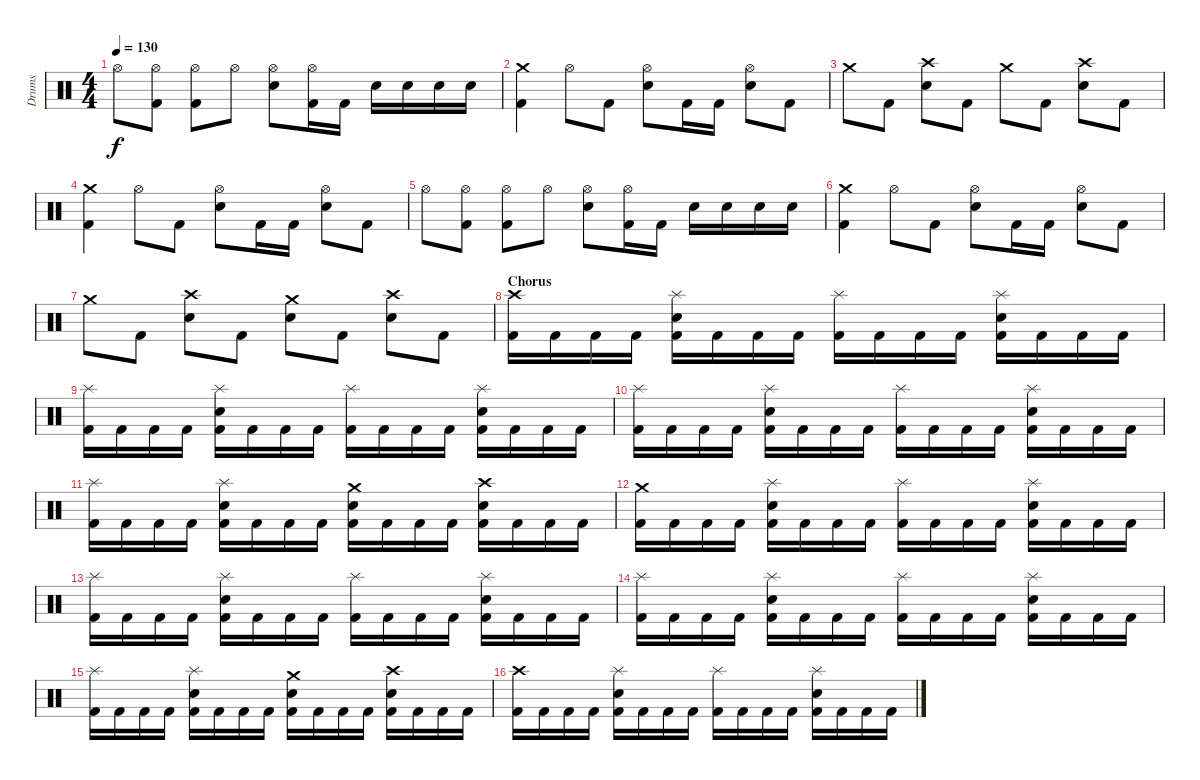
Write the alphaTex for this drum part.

\track ("Drums" "Drums") {instrument percussion}
\staff {score}
\articulation defaults
\ts (4 4)
\tempo 130
\clef neutral
\ks c "Hi-Hat (open)".8{dy f}
("Kick (hit) 2" "Hi-Hat (open)").8 ("Kick (hit) 2" "Hi-Hat (open)").8 "Hi-Hat (open)".8 ("Electric Snare (hit)" "Hi-Hat (open)").8 ("Kick (hit) 2" "Hi-Hat (open)").16 "Kick (hit) 2".16 "Electric Snare (hit)".16 "Electric Snare (hit)".16 "Electric Snare (hit)".16 "Electric Snare (hit)".16 |
("Kick (hit) 2" "Crash medium (hit)").4 "Hi-Hat (open)".8 "Kick (hit) 2".8 ("Electric Snare (hit)" "Hi-Hat (open)").8 "Kick (hit) 2".16 "Kick (hit) 2".16 ("Electric Snare (hit)" "Hi-Hat (open)").8 "Kick (hit) 2".8 |
"Crash medium (hit)".8 "Kick (hit) 2".8 ("Electric Snare (hit)" "Crash high (hit)").8 "Kick (hit) 2".8 "Crash medium (hit)".8 "Kick (hit) 2".8 ("Electric Snare (hit)" "Crash high (hit)").8 "Kick (hit) 2".8 |
("Kick (hit) 2" "Crash medium (hit)").4 "Hi-Hat (open)".8 "Kick (hit) 2".8 ("Electric Snare (hit)" "Hi-Hat (open)").8 "Kick (hit) 2".16 "Kick (hit) 2".16 ("Electric Snare (hit)" "Hi-Hat (open)").8 "Kick (hit) 2".8 |
"Hi-Hat (open)".8 ("Kick (hit) 2" "Hi-Hat (open)").8 ("Kick (hit) 2" "Hi-Hat (open)").8 "Hi-Hat (open)".8 ("Electric Snare (hit)" "Hi-Hat (open)").8 ("Kick (hit) 2" "Hi-Hat (open)").16 "Kick (hit) 2".16 "Electric Snare (hit)".16 "Electric Snare (hit)".16 "Electric Snare (hit)".16 "Electric Snare (hit)".16 |
("Kick (hit) 2" "Crash medium (hit)").4 "Hi-Hat (open)".8 "Kick (hit) 2".8 ("Electric Snare (hit)" "Hi-Hat (open)").8 "Kick (hit) 2".16 "Kick (hit) 2".16 ("Electric Snare (hit)" "Hi-Hat (open)").8 "Kick (hit) 2".8 |
"Crash medium (hit)".8 "Kick (hit) 2".8 ("Electric Snare (hit)" "Crash high (hit)").8 "Kick (hit) 2".8 ("Electric Snare (hit)" "Crash medium (hit)").8 "Kick (hit) 2".8 ("Electric Snare (hit)" "Crash high (hit)").8 "Kick (hit) 2".8 |
\section ("" "Chorus")
("Kick (hit) 2" "Crash high (hit)").16 "Kick (hit) 2".16 "Kick (hit) 2".16 "Kick (hit) 2".16 ("Kick (hit) 2" "Electric Snare (hit)" "Splash (hit)").16 "Kick (hit) 2".16 "Kick (hit) 2".16 "Kick (hit) 2".16 ("Kick (hit) 2" "Splash (hit)").16 "Kick (hit) 2".16 "Kick (hit) 2".16 "Kick (hit) 2".16 ("Kick (hit) 2" "Electric Snare (hit)" "Splash (hit)").16 "Kick (hit) 2".16 "Kick (hit) 2".16 "Kick (hit) 2".16 |
("Kick (hit) 2" "Splash (hit)").16 "Kick (hit) 2".16 "Kick (hit) 2".16 "Kick (hit) 2".16 ("Kick (hit) 2" "Electric Snare (hit)" "Splash (hit)").16 "Kick (hit) 2".16 "Kick (hit) 2".16 "Kick (hit) 2".16 ("Kick (hit) 2" "Splash (hit)").16 "Kick (hit) 2".16 "Kick (hit) 2".16 "Kick (hit) 2".16 ("Kick (hit) 2" "Electric Snare (hit)" "Splash (hit)").16 "Kick (hit) 2".16 "Kick (hit) 2".16 "Kick (hit) 2".16 |
("Kick (hit) 2" "Splash (hit)").16 "Kick (hit) 2".16 "Kick (hit) 2".16 "Kick (hit) 2".16 ("Kick (hit) 2" "Electric Snare (hit)" "Splash (hit)").16 "Kick (hit) 2".16 "Kick (hit) 2".16 "Kick (hit) 2".16 ("Kick (hit) 2" "Splash (hit)").16 "Kick (hit) 2".16 "Kick (hit) 2".16 "Kick (hit) 2".16 ("Kick (hit) 2" "Electric Snare (hit)" "Splash (hit)").16 "Kick (hit) 2".16 "Kick (hit) 2".16 "Kick (hit) 2".16 |
("Kick (hit) 2" "Splash (hit)").16 "Kick (hit) 2".16 "Kick (hit) 2".16 "Kick (hit) 2".16 ("Kick (hit) 2" "Electric Snare (hit)" "Splash (hit)").16 "Kick (hit) 2".16 "Kick (hit) 2".16 "Kick (hit) 2".16 ("Kick (hit) 2" "Electric Snare (hit)" "Crash medium (hit)").16 "Kick (hit) 2".16 "Kick (hit) 2".16 "Kick (hit) 2".16 ("Kick (hit) 2" "Electric Snare (hit)" "Crash high (hit)").16 "Kick (hit) 2".16 "Kick (hit) 2".16 "Kick (hit) 2".16 |
("Kick (hit) 2" "Crash medium (hit)").16 "Kick (hit) 2".16 "Kick (hit) 2".16 "Kick (hit) 2".16 ("Kick (hit) 2" "Electric Snare (hit)" "Splash (hit)").16 "Kick (hit) 2".16 "Kick (hit) 2".16 "Kick (hit) 2".16 ("Kick (hit) 2" "Splash (hit)").16 "Kick (hit) 2".16 "Kick (hit) 2".16 "Kick (hit) 2".16 ("Kick (hit) 2" "Electric Snare (hit)" "Splash (hit)").16 "Kick (hit) 2".16 "Kick (hit) 2".16 "Kick (hit) 2".16 |
("Kick (hit) 2" "Splash (hit)").16 "Kick (hit) 2".16 "Kick (hit) 2".16 "Kick (hit) 2".16 ("Kick (hit) 2" "Electric Snare (hit)" "Splash (hit)").16 "Kick (hit) 2".16 "Kick (hit) 2".16 "Kick (hit) 2".16 ("Kick (hit) 2" "Splash (hit)").16 "Kick (hit) 2".16 "Kick (hit) 2".16 "Kick (hit) 2".16 ("Kick (hit) 2" "Electric Snare (hit)" "Splash (hit)").16 "Kick (hit) 2".16 "Kick (hit) 2".16 "Kick (hit) 2".16 |
("Kick (hit) 2" "Splash (hit)").16 "Kick (hit) 2".16 "Kick (hit) 2".16 "Kick (hit) 2".16 ("Kick (hit) 2" "Electric Snare (hit)" "Splash (hit)").16 "Kick (hit) 2".16 "Kick (hit) 2".16 "Kick (hit) 2".16 ("Kick (hit) 2" "Splash (hit)").16 "Kick (hit) 2".16 "Kick (hit) 2".16 "Kick (hit) 2".16 ("Kick (hit) 2" "Electric Snare (hit)" "Splash (hit)").16 "Kick (hit) 2".16 "Kick (hit) 2".16 "Kick (hit) 2".16 |
("Kick (hit) 2" "Splash (hit)").16 "Kick (hit) 2".16 "Kick (hit) 2".16 "Kick (hit) 2".16 ("Kick (hit) 2" "Electric Snare (hit)" "Splash (hit)").16 "Kick (hit) 2".16 "Kick (hit) 2".16 "Kick (hit) 2".16 ("Kick (hit) 2" "Electric Snare (hit)" "Crash medium (hit)").16 "Kick (hit) 2".16 "Kick (hit) 2".16 "Kick (hit) 2".16 ("Kick (hit) 2" "Electric Snare (hit)" "Crash high (hit)").16 "Kick (hit) 2".16 "Kick (hit) 2".16 "Kick (hit) 2".16 |
("Kick (hit) 2" "Crash high (hit)").16 "Kick (hit) 2".16 "Kick (hit) 2".16 "Kick (hit) 2".16 ("Kick (hit) 2" "Electric Snare (hit)" "Splash (hit)").16 "Kick (hit) 2".16 "Kick (hit) 2".16 "Kick (hit) 2".16 ("Kick (hit) 2" "Splash (hit)").16 "Kick (hit) 2".16 "Kick (hit) 2".16 "Kick (hit) 2".16 ("Kick (hit) 2" "Electric Snare (hit)" "Splash (hit)").16 "Kick (hit) 2".16 "Kick (hit) 2".16 "Kick (hit) 2".16
